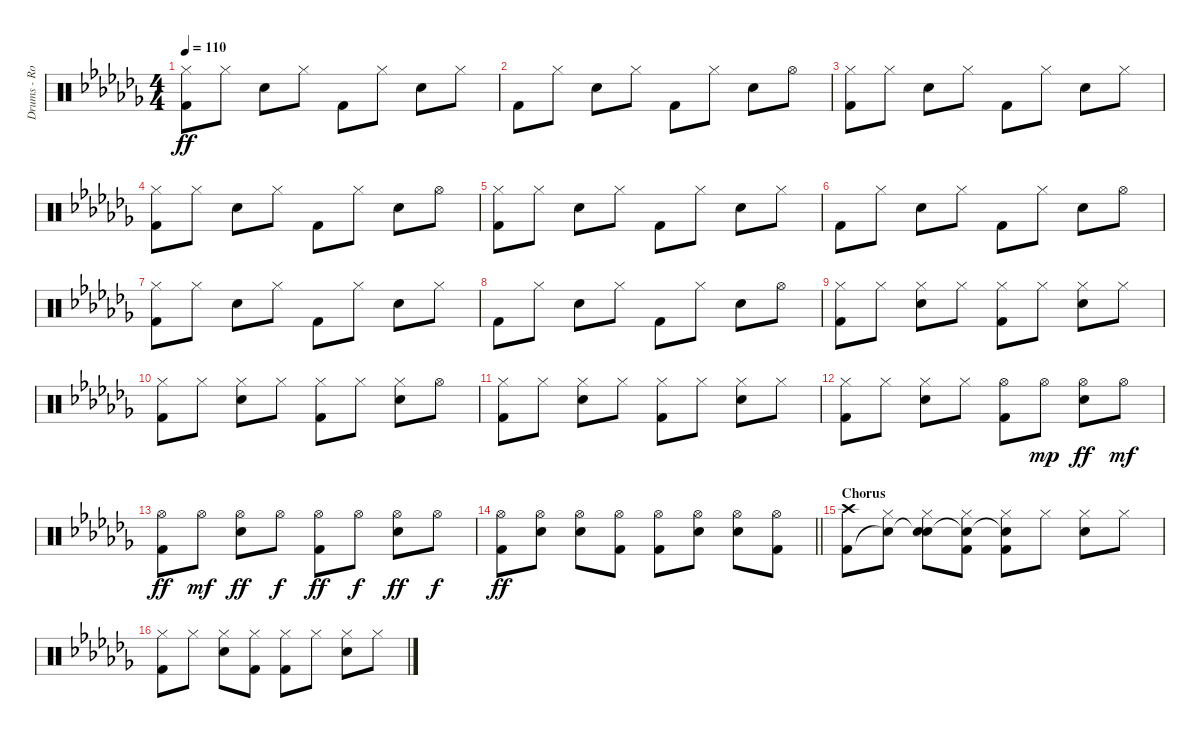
\track ("Drums - Rob Bourdon" "Drums - Ro") {instrument percussion}
\staff {score}
\articulation defaults
\ts (4 4)
\tempo 110
\clef neutral
\ks abminor
("Hi-Hat (closed)" "Kick (hit) 2").8{dy ff} "Hi-Hat (closed)".8 "Electric Snare (hit)".8 "Hi-Hat (closed)".8 "Kick (hit) 2".8 "Hi-Hat (closed)".8 "Electric Snare (hit)".8 "Hi-Hat (closed)".8 |
"Kick (hit) 2".8 "Hi-Hat (closed)".8 "Electric Snare (hit)".8 "Hi-Hat (closed)".8 "Kick (hit) 2".8 "Hi-Hat (closed)".8 "Electric Snare (hit)".8 "Hi-Hat (open)".8 |
("Hi-Hat (closed)" "Kick (hit) 2").8 "Hi-Hat (closed)".8 "Electric Snare (hit)".8 "Hi-Hat (closed)".8 "Kick (hit) 2".8 "Hi-Hat (closed)".8 "Electric Snare (hit)".8 "Hi-Hat (closed)".8 |
("Hi-Hat (closed)" "Kick (hit) 2").8 "Hi-Hat (closed)".8 "Electric Snare (hit)".8 "Hi-Hat (closed)".8 "Kick (hit) 2".8 "Hi-Hat (closed)".8 "Electric Snare (hit)".8 "Hi-Hat (open)".8 |
("Hi-Hat (closed)" "Kick (hit) 2").8 "Hi-Hat (closed)".8 "Electric Snare (hit)".8 "Hi-Hat (closed)".8 "Kick (hit) 2".8 "Hi-Hat (closed)".8 "Electric Snare (hit)".8 "Hi-Hat (closed)".8 |
"Kick (hit) 2".8 "Hi-Hat (closed)".8 "Electric Snare (hit)".8 "Hi-Hat (closed)".8 "Kick (hit) 2".8 "Hi-Hat (closed)".8 "Electric Snare (hit)".8 "Hi-Hat (open)".8 |
("Hi-Hat (closed)" "Kick (hit) 2").8 "Hi-Hat (closed)".8 "Electric Snare (hit)".8 "Hi-Hat (closed)".8 "Kick (hit) 2".8 "Hi-Hat (closed)".8 "Electric Snare (hit)".8 "Hi-Hat (closed)".8 |
"Kick (hit) 2".8 "Hi-Hat (closed)".8 "Electric Snare (hit)".8 "Hi-Hat (closed)".8 "Kick (hit) 2".8 "Hi-Hat (closed)".8 "Electric Snare (hit)".8 "Hi-Hat (open)".8 |
("Hi-Hat (closed)" "Kick (hit) 2").8 "Hi-Hat (closed)".8 ("Hi-Hat (closed)" "Electric Snare (hit)").8 "Hi-Hat (closed)".8 ("Hi-Hat (closed)" "Kick (hit) 2").8 "Hi-Hat (closed)".8 ("Hi-Hat (closed)" "Electric Snare (hit)").8 "Hi-Hat (closed)".8 |
("Hi-Hat (closed)" "Kick (hit) 2").8 "Hi-Hat (closed)".8 ("Hi-Hat (closed)" "Electric Snare (hit)").8 "Hi-Hat (closed)".8 ("Hi-Hat (closed)" "Kick (hit) 2").8 "Hi-Hat (closed)".8 ("Hi-Hat (closed)" "Electric Snare (hit)").8 "Hi-Hat (open)".8 |
("Hi-Hat (closed)" "Kick (hit) 2").8 "Hi-Hat (closed)".8 ("Hi-Hat (closed)" "Electric Snare (hit)").8 "Hi-Hat (closed)".8 ("Hi-Hat (closed)" "Kick (hit) 2").8 "Hi-Hat (closed)".8 ("Hi-Hat (closed)" "Electric Snare (hit)").8 "Hi-Hat (closed)".8 |
("Hi-Hat (closed)" "Kick (hit) 2").8 "Hi-Hat (closed)".8 ("Hi-Hat (closed)" "Electric Snare (hit)").8 "Hi-Hat (closed)".8 ("Hi-Hat (open)" "Kick (hit) 2").8 "Hi-Hat (open)".8{dy mp} ("Hi-Hat (open)" "Electric Snare (hit)").8{dy ff} "Hi-Hat (open)".8{dy mf} |
("Hi-Hat (open)" "Kick (hit) 2").8{dy ff} "Hi-Hat (open)".8{dy mf} ("Hi-Hat (open)" "Electric Snare (hit)").8{dy ff} "Hi-Hat (open)".8{dy f} ("Hi-Hat (open)" "Kick (hit) 2").8{dy ff} "Hi-Hat (open)".8{dy f} ("Hi-Hat (open)" "Electric Snare (hit)").8{dy ff} "Hi-Hat (open)".8{dy f} |
\barLineRight lightlight
("Hi-Hat (open)" "Kick (hit) 2").8{dy ff} ("Hi-Hat (open)" "Electric Snare (hit)").8 ("Hi-Hat (open)" "Electric Snare (hit)").8 ("Hi-Hat (open)" "Kick (hit) 2").8 ("Hi-Hat (open)" "Kick (hit) 2").8 ("Hi-Hat (open)" "Electric Snare (hit)").8 ("Hi-Hat (open)" "Electric Snare (hit)").8 ("Hi-Hat (open)" "Kick (hit) 2").8 |
\section ("" "Chorus")
("Crash high (hit)" "Kick (hit) 2").8 ("Hi-Hat (closed)" "Snare (hit)"{t}).8 ("Hi-Hat (closed)" "Snare (hit)"{t} "Electric Snare (hit)").8 ("Hi-Hat (closed)" "Snare (hit)"{t} "Kick (hit) 2").8 ("Hi-Hat (closed)" "Snare (hit)"{t} "Kick (hit) 2").8 "Hi-Hat (closed)".8 ("Hi-Hat (closed)" "Electric Snare (hit)").8 "Hi-Hat (closed)".8 |
("Hi-Hat (closed)" "Kick (hit) 2").8 "Hi-Hat (closed)".8 ("Hi-Hat (closed)" "Electric Snare (hit)").8 ("Hi-Hat (closed)" "Kick (hit) 2").8 ("Hi-Hat (closed)" "Kick (hit) 2").8 "Hi-Hat (closed)".8 ("Hi-Hat (closed)" "Electric Snare (hit)").8 "Hi-Hat (closed)".8
